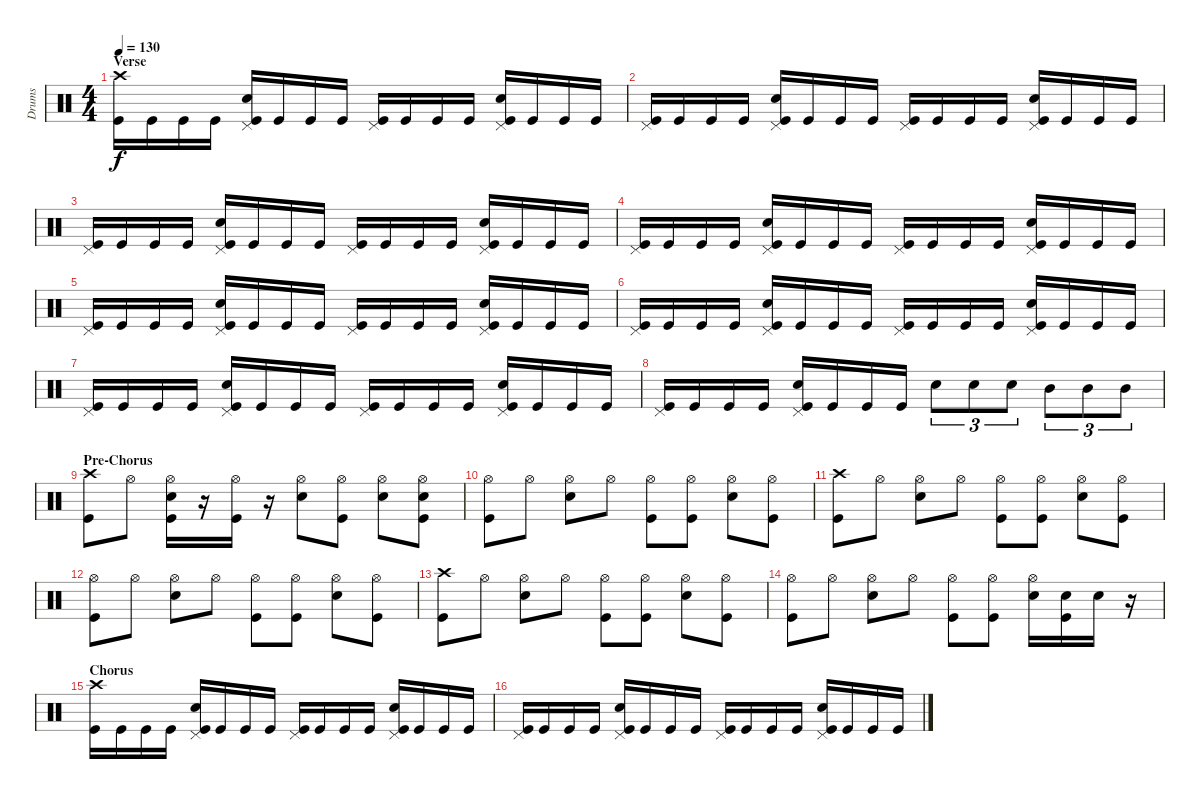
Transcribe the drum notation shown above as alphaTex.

\track ("Drums" "Drums") {instrument percussion}
\staff {score}
\articulation defaults
\ts (4 4)
\section ("" "Verse")
\tempo 130
\clef neutral
\ks c
("Crash high (hit)" "Kick (hit)").16{dy f} "Kick (hit)".16 "Kick (hit)".16 "Kick (hit)".16 ("Pedal Hi-Hat (hit)" "Snare (hit) 2" "Kick (hit)").16 "Kick (hit)".16 "Kick (hit)".16 "Kick (hit)".16 ("Pedal Hi-Hat (hit)" "Kick (hit)").16 "Kick (hit)".16 "Kick (hit)".16 "Kick (hit)".16 ("Pedal Hi-Hat (hit)" "Snare (hit) 2" "Kick (hit)").16 "Kick (hit)".16 "Kick (hit)".16 "Kick (hit)".16 |
("Pedal Hi-Hat (hit)" "Kick (hit)").16 "Kick (hit)".16 "Kick (hit)".16 "Kick (hit)".16 ("Pedal Hi-Hat (hit)" "Snare (hit) 2" "Kick (hit)").16 "Kick (hit)".16 "Kick (hit)".16 "Kick (hit)".16 ("Pedal Hi-Hat (hit)" "Kick (hit)").16 "Kick (hit)".16 "Kick (hit)".16 "Kick (hit)".16 ("Pedal Hi-Hat (hit)" "Snare (hit) 2" "Kick (hit)").16 "Kick (hit)".16 "Kick (hit)".16 "Kick (hit)".16 |
("Pedal Hi-Hat (hit)" "Kick (hit)").16 "Kick (hit)".16 "Kick (hit)".16 "Kick (hit)".16 ("Pedal Hi-Hat (hit)" "Snare (hit) 2" "Kick (hit)").16 "Kick (hit)".16 "Kick (hit)".16 "Kick (hit)".16 ("Pedal Hi-Hat (hit)" "Kick (hit)").16 "Kick (hit)".16 "Kick (hit)".16 "Kick (hit)".16 ("Pedal Hi-Hat (hit)" "Snare (hit) 2" "Kick (hit)").16 "Kick (hit)".16 "Kick (hit)".16 "Kick (hit)".16 |
("Pedal Hi-Hat (hit)" "Kick (hit)").16 "Kick (hit)".16 "Kick (hit)".16 "Kick (hit)".16 ("Pedal Hi-Hat (hit)" "Snare (hit) 2" "Kick (hit)").16 "Kick (hit)".16 "Kick (hit)".16 "Kick (hit)".16 ("Pedal Hi-Hat (hit)" "Kick (hit)").16 "Kick (hit)".16 "Kick (hit)".16 "Kick (hit)".16 ("Pedal Hi-Hat (hit)" "Snare (hit) 2" "Kick (hit)").16 "Kick (hit)".16 "Kick (hit)".16 "Kick (hit)".16 |
("Pedal Hi-Hat (hit)" "Kick (hit)").16 "Kick (hit)".16 "Kick (hit)".16 "Kick (hit)".16 ("Pedal Hi-Hat (hit)" "Snare (hit) 2" "Kick (hit)").16 "Kick (hit)".16 "Kick (hit)".16 "Kick (hit)".16 ("Pedal Hi-Hat (hit)" "Kick (hit)").16 "Kick (hit)".16 "Kick (hit)".16 "Kick (hit)".16 ("Pedal Hi-Hat (hit)" "Snare (hit) 2" "Kick (hit)").16 "Kick (hit)".16 "Kick (hit)".16 "Kick (hit)".16 |
("Pedal Hi-Hat (hit)" "Kick (hit)").16 "Kick (hit)".16 "Kick (hit)".16 "Kick (hit)".16 ("Pedal Hi-Hat (hit)" "Snare (hit) 2" "Kick (hit)").16 "Kick (hit)".16 "Kick (hit)".16 "Kick (hit)".16 ("Pedal Hi-Hat (hit)" "Kick (hit)").16 "Kick (hit)".16 "Kick (hit)".16 "Kick (hit)".16 ("Pedal Hi-Hat (hit)" "Snare (hit) 2" "Kick (hit)").16 "Kick (hit)".16 "Kick (hit)".16 "Kick (hit)".16 |
("Pedal Hi-Hat (hit)" "Kick (hit)").16 "Kick (hit)".16 "Kick (hit)".16 "Kick (hit)".16 ("Pedal Hi-Hat (hit)" "Snare (hit) 2" "Kick (hit)").16 "Kick (hit)".16 "Kick (hit)".16 "Kick (hit)".16 ("Pedal Hi-Hat (hit)" "Kick (hit)").16 "Kick (hit)".16 "Kick (hit)".16 "Kick (hit)".16 ("Pedal Hi-Hat (hit)" "Snare (hit) 2" "Kick (hit)").16 "Kick (hit)".16 "Kick (hit)".16 "Kick (hit)".16 |
("Pedal Hi-Hat (hit)" "Kick (hit)").16 "Kick (hit)".16 "Kick (hit)".16 "Kick (hit)".16 ("Pedal Hi-Hat (hit)" "Snare (hit) 2" "Kick (hit)").16 "Kick (hit)".16 "Kick (hit)".16 "Kick (hit)".16 "Snare (hit) 2".8{tu (3 2)} "Snare (hit) 2".8{tu (3 2)} "Snare (hit) 2".8{tu (3 2)} "Mid Tom (hit)".8{tu (3 2)} "Mid Tom (hit)".8{tu (3 2)} "Mid Tom (hit)".8{tu (3 2)} |
\section ("" "Pre-Chorus")
("Crash high (hit)" "Kick (hit)").8 "Hi-Hat (open)".8 ("Hi-Hat (open)" "Snare (hit) 2" "Kick (hit)").16 r.16 ("Hi-Hat (open)" "Kick (hit)").16 r.16 ("Hi-Hat (open)" "Snare (hit) 2").8 ("Hi-Hat (open)" "Kick (hit)").8 ("Hi-Hat (open)" "Snare (hit) 2").8 ("Hi-Hat (open)" "Snare (hit) 2" "Kick (hit)").8 |
("Hi-Hat (open)" "Kick (hit)").8 "Hi-Hat (open)".8 ("Hi-Hat (open)" "Snare (hit) 2").8 "Hi-Hat (open)".8 ("Hi-Hat (open)" "Kick (hit)").8 ("Hi-Hat (open)" "Kick (hit)").8 ("Hi-Hat (open)" "Snare (hit) 2").8 ("Hi-Hat (open)" "Kick (hit)").8 |
("Crash high (hit)" "Kick (hit)").8 "Hi-Hat (open)".8 ("Hi-Hat (open)" "Snare (hit) 2").8 "Hi-Hat (open)".8 ("Hi-Hat (open)" "Kick (hit)").8 ("Hi-Hat (open)" "Kick (hit)").8 ("Hi-Hat (open)" "Snare (hit) 2").8 ("Hi-Hat (open)" "Kick (hit)").8 |
("Hi-Hat (open)" "Kick (hit)").8 "Hi-Hat (open)".8 ("Hi-Hat (open)" "Snare (hit) 2").8 "Hi-Hat (open)".8 ("Hi-Hat (open)" "Kick (hit)").8 ("Hi-Hat (open)" "Kick (hit)").8 ("Hi-Hat (open)" "Snare (hit) 2").8 ("Hi-Hat (open)" "Kick (hit)").8 |
("Crash high (hit)" "Kick (hit)").8 "Hi-Hat (open)".8 ("Hi-Hat (open)" "Snare (hit) 2").8 "Hi-Hat (open)".8 ("Hi-Hat (open)" "Kick (hit)").8 ("Hi-Hat (open)" "Kick (hit)").8 ("Hi-Hat (open)" "Snare (hit) 2").8 ("Hi-Hat (open)" "Kick (hit)").8 |
("Hi-Hat (open)" "Kick (hit)").8 "Hi-Hat (open)".8 ("Hi-Hat (open)" "Snare (hit) 2").8 "Hi-Hat (open)".8 ("Hi-Hat (open)" "Kick (hit)").8 ("Hi-Hat (open)" "Kick (hit)").8 ("Hi-Hat (open)" "Snare (hit) 2").16 ("Snare (hit) 2" "Kick (hit)").16 "Snare (hit) 2".16 r.16 |
\section ("" "Chorus")
("Crash high (hit)" "Kick (hit)").16 "Kick (hit)".16 "Kick (hit)".16 "Kick (hit)".16 ("Pedal Hi-Hat (hit)" "Snare (hit) 2" "Kick (hit)").16 "Kick (hit)".16 "Kick (hit)".16 "Kick (hit)".16 ("Pedal Hi-Hat (hit)" "Kick (hit)").16 "Kick (hit)".16 "Kick (hit)".16 "Kick (hit)".16 ("Pedal Hi-Hat (hit)" "Snare (hit) 2" "Kick (hit)").16 "Kick (hit)".16 "Kick (hit)".16 "Kick (hit)".16 |
("Pedal Hi-Hat (hit)" "Kick (hit)").16 "Kick (hit)".16 "Kick (hit)".16 "Kick (hit)".16 ("Pedal Hi-Hat (hit)" "Snare (hit) 2" "Kick (hit)").16 "Kick (hit)".16 "Kick (hit)".16 "Kick (hit)".16 ("Pedal Hi-Hat (hit)" "Kick (hit)").16 "Kick (hit)".16 "Kick (hit)".16 "Kick (hit)".16 ("Pedal Hi-Hat (hit)" "Snare (hit) 2" "Kick (hit)").16 "Kick (hit)".16 "Kick (hit)".16 "Kick (hit)".16
